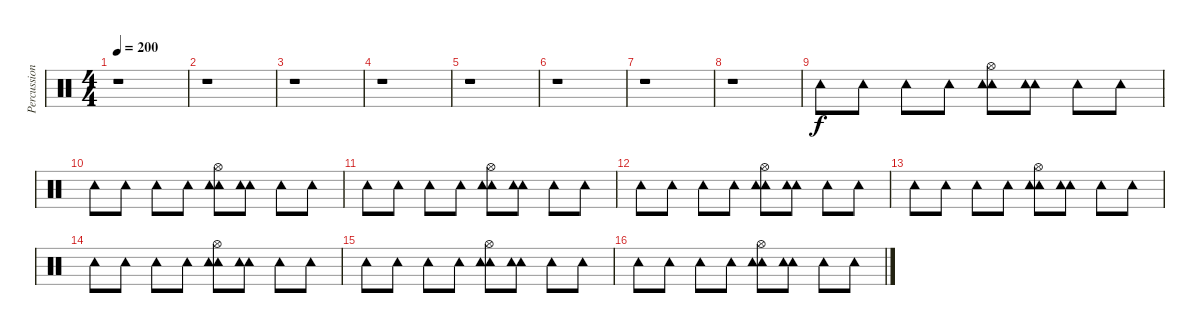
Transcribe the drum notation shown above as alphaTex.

\track ("Percussion" "Percussion") {instrument percussion}
\staff {score}
\articulation defaults
\ts (4 4)
\tempo 200
\clef neutral
\ks c
r.1{dy f} |
r.1 |
r.1 |
r.1 |
r.1 |
r.1 |
r.1 |
r.1 |
"Tambourine (hit)".8 "Tambourine (hit)".8 "Tambourine (hit)".8 "Tambourine (hit)".8 ("Tambourine (hit)" "Tambourine (hit)" "Hi-Hat (open)").8 ("Tambourine (hit)" "Tambourine (hit)").8 "Tambourine (hit)".8 "Tambourine (hit)".8 |
"Tambourine (hit)".8 "Tambourine (hit)".8 "Tambourine (hit)".8 "Tambourine (hit)".8 ("Tambourine (hit)" "Tambourine (hit)" "Hi-Hat (open)").8 ("Tambourine (hit)" "Tambourine (hit)").8 "Tambourine (hit)".8 "Tambourine (hit)".8 |
"Tambourine (hit)".8 "Tambourine (hit)".8 "Tambourine (hit)".8 "Tambourine (hit)".8 ("Tambourine (hit)" "Tambourine (hit)" "Hi-Hat (open)").8 ("Tambourine (hit)" "Tambourine (hit)").8 "Tambourine (hit)".8 "Tambourine (hit)".8 |
"Tambourine (hit)".8 "Tambourine (hit)".8 "Tambourine (hit)".8 "Tambourine (hit)".8 ("Tambourine (hit)" "Tambourine (hit)" "Hi-Hat (open)").8 ("Tambourine (hit)" "Tambourine (hit)").8 "Tambourine (hit)".8 "Tambourine (hit)".8 |
"Tambourine (hit)".8 "Tambourine (hit)".8 "Tambourine (hit)".8 "Tambourine (hit)".8 ("Tambourine (hit)" "Tambourine (hit)" "Hi-Hat (open)").8 ("Tambourine (hit)" "Tambourine (hit)").8 "Tambourine (hit)".8 "Tambourine (hit)".8 |
"Tambourine (hit)".8 "Tambourine (hit)".8 "Tambourine (hit)".8 "Tambourine (hit)".8 ("Tambourine (hit)" "Tambourine (hit)" "Hi-Hat (open)").8 ("Tambourine (hit)" "Tambourine (hit)").8 "Tambourine (hit)".8 "Tambourine (hit)".8 |
"Tambourine (hit)".8 "Tambourine (hit)".8 "Tambourine (hit)".8 "Tambourine (hit)".8 ("Tambourine (hit)" "Tambourine (hit)" "Hi-Hat (open)").8 ("Tambourine (hit)" "Tambourine (hit)").8 "Tambourine (hit)".8 "Tambourine (hit)".8 |
"Tambourine (hit)".8 "Tambourine (hit)".8 "Tambourine (hit)".8 "Tambourine (hit)".8 ("Tambourine (hit)" "Tambourine (hit)" "Hi-Hat (open)").8 ("Tambourine (hit)" "Tambourine (hit)").8 "Tambourine (hit)".8 "Tambourine (hit)".8
